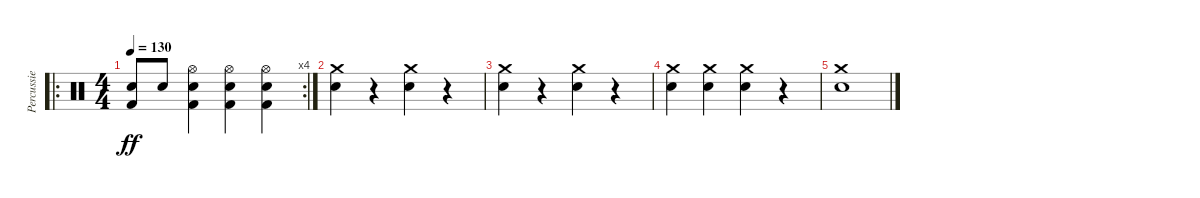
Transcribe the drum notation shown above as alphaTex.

\track ("Percussie" "Percussie") {instrument percussion}
\staff {score}
\articulation defaults
\ro
\rc 4
\ts (4 4)
\tempo 130
\clef neutral
\ks c
("Snare (hit) 2" "Kick (hit) 2").8{dy ff} "Snare (hit) 2".8 ("Hi-Hat (open)" "Snare (hit) 2" "Kick (hit) 2").4 ("Hi-Hat (open)" "Snare (hit) 2" "Kick (hit) 2").4 ("Hi-Hat (open)" "Snare (hit) 2" "Kick (hit) 2").4 |
("Crash medium (hit)" "Snare (hit) 2").4 r.4 ("Crash medium (hit)" "Snare (hit) 2").4 r.4 |
("Crash medium (hit)" "Snare (hit) 2").4 r.4 ("Crash medium (hit)" "Snare (hit) 2").4 r.4 |
("Crash medium (hit)" "Snare (hit) 2").4 ("Crash medium (hit)" "Snare (hit) 2").4 ("Crash medium (hit)" "Snare (hit) 2").4 r.4 |
("Crash medium (hit)" "Snare (hit) 2").1
